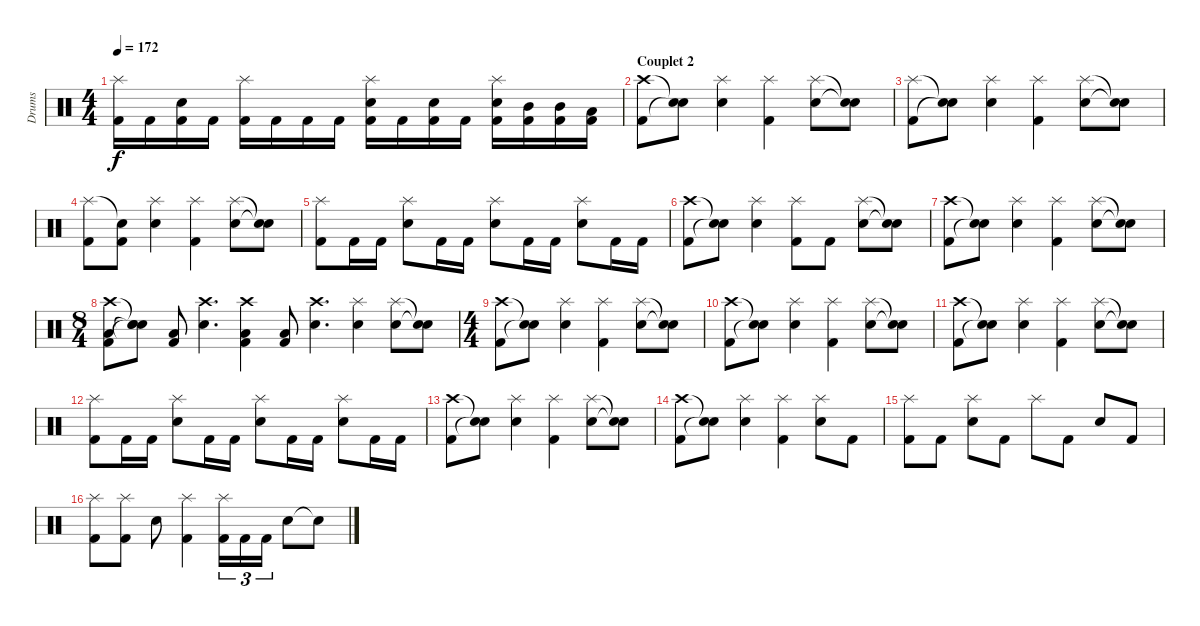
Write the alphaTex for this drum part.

\track ("Drums" "Drums") {instrument percussion}
\staff {score}
\articulation defaults
\ts (4 4)
\tempo 172
\clef neutral
\ks c
("Splash (hit)" "Kick (hit) 2").16{dy f} "Kick (hit) 2".16 ("Electric Snare (hit)" "Kick (hit) 2").16 "Kick (hit) 2".16 ("Splash (hit)" "Kick (hit) 2").16 "Kick (hit) 2".16 "Kick (hit) 2".16 "Kick (hit) 2".16 ("Splash (hit)" "Electric Snare (hit)" "Kick (hit) 2").16 "Kick (hit) 2".16 ("Electric Snare (hit)" "Kick (hit) 2").16 "Kick (hit) 2".16 ("Splash (hit)" "Electric Snare (hit)" "Kick (hit) 2").16 ("Mid Tom (hit)" "Kick (hit) 2").16 ("Mid Tom (hit)" "Kick (hit) 2").16 ("Low Tom (hit)" "Kick (hit) 2").16 |
\section ("" "Couplet 2")
("Crash high (hit)" "Kick (hit) 2").8 ("Snare (hit)"{t} "Snare (hit)"{t}).8 ("Splash (hit)" "Electric Snare (hit)").4 ("Splash (hit)" "Kick (hit) 2").4 ("Splash (hit)" "Electric Snare (hit)").8 ("Snare (hit)"{t} "Snare (hit)"{t}).8 |
("Splash (hit)" "Kick (hit) 2").8 ("Snare (hit)"{t} "Snare (hit)"{t}).8 ("Splash (hit)" "Electric Snare (hit)").4 ("Splash (hit)" "Kick (hit) 2").4 ("Splash (hit)" "Electric Snare (hit)").8 ("Snare (hit)"{t} "Snare (hit)"{t}).8 |
("Splash (hit)" "Kick (hit) 2").8 ("Snare (hit)"{t} "Kick (hit) 2").8 ("Splash (hit)" "Electric Snare (hit)").4 ("Splash (hit)" "Kick (hit) 2").4 ("Splash (hit)" "Electric Snare (hit)").8 ("Snare (hit)"{t} "Snare (hit)"{t}).8 |
("Splash (hit)" "Kick (hit) 2").8 "Kick (hit) 2".16 "Kick (hit) 2".16 ("Splash (hit)" "Electric Snare (hit)").8 "Kick (hit) 2".16 "Kick (hit) 2".16 ("Splash (hit)" "Electric Snare (hit)").8 "Kick (hit) 2".16 "Kick (hit) 2".16 ("Splash (hit)" "Electric Snare (hit)").8 "Kick (hit) 2".16 "Kick (hit) 2".16 |
("Crash high (hit)" "Kick (hit) 2").8 ("Snare (hit)"{t} "Snare (hit)"{t}).8 ("Splash (hit)" "Electric Snare (hit)").4 ("Splash (hit)" "Kick (hit) 2").8 "Kick (hit) 2".8 ("Splash (hit)" "Electric Snare (hit)").8 ("Snare (hit)"{t} "Snare (hit)"{t}).8 |
("Crash high (hit)" "Kick (hit) 2").8 ("Snare (hit)"{t} "Snare (hit)"{t}).8 ("Splash (hit)" "Electric Snare (hit)").4 ("Splash (hit)" "Kick (hit) 2").4 ("Splash (hit)" "Electric Snare (hit)").8 ("Snare (hit)"{t} "Snare (hit)"{t}).8 |
\ts (8 4)
("Crash high (hit)" "Low Tom (hit)" "Kick (hit) 2").8 ("Snare (hit)"{t} "Snare (hit)"{t} "Snare (hit)"{t}).8 ("Low Tom (hit)" "Kick (hit) 2").8 ("Crash high (hit)" "Electric Snare (hit)").4{d} ("Crash high (hit)" "Low Tom (hit)" "Kick (hit) 2").4 ("Low Tom (hit)" "Kick (hit) 2").8 ("Crash high (hit)" "Electric Snare (hit)").4{d} ("Splash (hit)" "Electric Snare (hit)").4 ("Splash (hit)" "Electric Snare (hit)").8 ("Snare (hit)"{t} "Snare (hit)"{t}).8 |
\ts (4 4)
("Crash high (hit)" "Kick (hit) 2").8 ("Snare (hit)"{t} "Snare (hit)"{t}).8 ("Splash (hit)" "Electric Snare (hit)").4 ("Splash (hit)" "Kick (hit) 2").4 ("Splash (hit)" "Electric Snare (hit)").8 ("Snare (hit)"{t} "Snare (hit)"{t}).8 |
("Crash high (hit)" "Kick (hit) 2").8 ("Snare (hit)"{t} "Snare (hit)"{t}).8 ("Splash (hit)" "Electric Snare (hit)").4 ("Splash (hit)" "Kick (hit) 2").4 ("Splash (hit)" "Electric Snare (hit)").8 ("Snare (hit)"{t} "Snare (hit)"{t}).8 |
("Crash high (hit)" "Kick (hit) 2").8 ("Snare (hit)"{t} "Snare (hit)"{t}).8 ("Splash (hit)" "Electric Snare (hit)").4 ("Splash (hit)" "Kick (hit) 2").4 ("Splash (hit)" "Electric Snare (hit)").8 ("Snare (hit)"{t} "Snare (hit)"{t}).8 |
("Splash (hit)" "Kick (hit) 2").8 "Kick (hit) 2".16 "Kick (hit) 2".16 ("Splash (hit)" "Electric Snare (hit)").8 "Kick (hit) 2".16 "Kick (hit) 2".16 ("Splash (hit)" "Electric Snare (hit)").8 "Kick (hit) 2".16 "Kick (hit) 2".16 ("Splash (hit)" "Electric Snare (hit)").8 "Kick (hit) 2".16 "Kick (hit) 2".16 |
("Crash high (hit)" "Kick (hit) 2").8 ("Snare (hit)"{t} "Snare (hit)"{t}).8 ("Splash (hit)" "Electric Snare (hit)").4 ("Splash (hit)" "Kick (hit) 2").4 ("Splash (hit)" "Electric Snare (hit)").8 ("Snare (hit)"{t} "Snare (hit)"{t}).8 |
("Crash high (hit)" "Kick (hit) 2").8 ("Snare (hit)"{t} "Snare (hit)"{t}).8 ("Splash (hit)" "Electric Snare (hit)").4 ("Splash (hit)" "Kick (hit) 2").4 ("Splash (hit)" "Electric Snare (hit)").8 "Kick (hit) 2".8 |
("Splash (hit)" "Kick (hit) 2").8 "Kick (hit) 2".8 ("Splash (hit)" "Electric Snare (hit)").8 "Kick (hit) 2".8 "Splash (hit)".8 "Kick (hit) 2".8 "Electric Snare (hit)".8 "Kick (hit) 2".8 |
("Splash (hit)" "Kick (hit) 2").8 ("Splash (hit)" "Kick (hit) 2").8 "Electric Snare (hit)".8 ("Splash (hit)" "Kick (hit) 2").4 ("Splash (hit)" "Kick (hit) 2").16{tu (3 2)} "Kick (hit) 2".16{tu (3 2)} "Kick (hit) 2".16{tu (3 2)} "Electric Snare (hit)".8 "Snare (hit)"{t}.8
